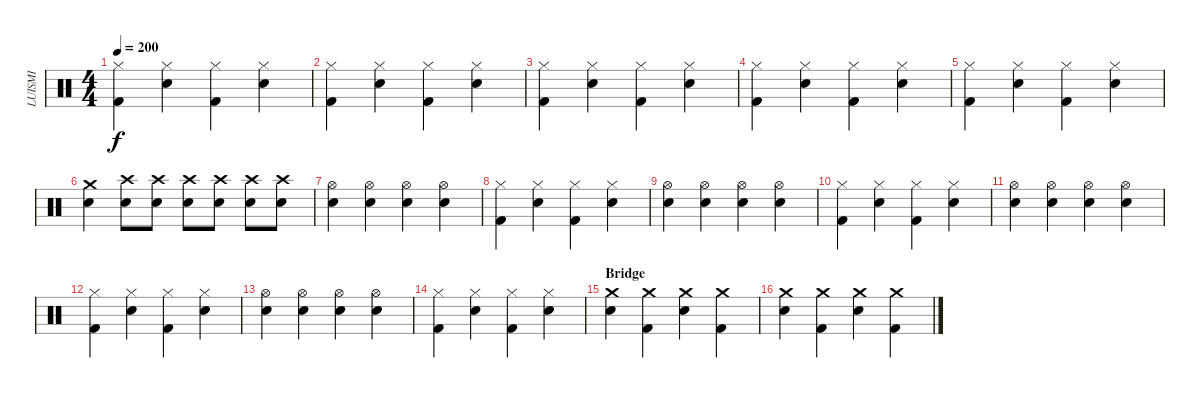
\track ("LUISMI" "LUISMI") {instrument percussion}
\staff {score}
\articulation defaults
\ts (4 4)
\tempo 200
\clef neutral
\ks c
("Hi-Hat (closed)" "Kick (hit) 2").4{dy f} ("Hi-Hat (closed)" "Snare (hit) 2").4 ("Hi-Hat (closed)" "Kick (hit) 2").4 ("Hi-Hat (closed)" "Snare (hit) 2").4 |
("Hi-Hat (closed)" "Kick (hit) 2").4 ("Hi-Hat (closed)" "Snare (hit) 2").4 ("Hi-Hat (closed)" "Kick (hit) 2").4 ("Hi-Hat (closed)" "Snare (hit) 2").4 |
("Hi-Hat (closed)" "Kick (hit) 2").4 ("Hi-Hat (closed)" "Snare (hit) 2").4 ("Hi-Hat (closed)" "Kick (hit) 2").4 ("Hi-Hat (closed)" "Snare (hit) 2").4 |
("Hi-Hat (closed)" "Kick (hit) 2").4 ("Hi-Hat (closed)" "Snare (hit) 2").4 ("Hi-Hat (closed)" "Kick (hit) 2").4 ("Hi-Hat (closed)" "Snare (hit) 2").4 |
("Hi-Hat (closed)" "Kick (hit) 2").4 ("Hi-Hat (closed)" "Snare (hit) 2").4 ("Hi-Hat (closed)" "Kick (hit) 2").4 ("Hi-Hat (closed)" "Snare (hit) 2").4 |
("Electric Snare (hit)" "Crash medium (hit)").4 ("Snare (hit) 2" "Crash high (hit)").8 ("Snare (hit) 2" "Crash high (hit)").8 ("Snare (hit) 2" "Crash high (hit)").8 ("Snare (hit) 2" "Crash high (hit)").8 ("Snare (hit) 2" "Crash high (hit)").8 ("Snare (hit) 2" "Crash high (hit)").8 |
("Snare (hit) 2" "Hi-Hat (open)").4 ("Snare (hit) 2" "Hi-Hat (open)").4 ("Snare (hit) 2" "Hi-Hat (open)").4 ("Snare (hit) 2" "Hi-Hat (open)").4 |
("Hi-Hat (closed)" "Kick (hit) 2").4 ("Hi-Hat (closed)" "Snare (hit) 2").4 ("Hi-Hat (closed)" "Kick (hit) 2").4 ("Hi-Hat (closed)" "Snare (hit) 2").4 |
("Snare (hit) 2" "Hi-Hat (open)").4 ("Snare (hit) 2" "Hi-Hat (open)").4 ("Snare (hit) 2" "Hi-Hat (open)").4 ("Snare (hit) 2" "Hi-Hat (open)").4 |
("Hi-Hat (closed)" "Kick (hit) 2").4 ("Hi-Hat (closed)" "Snare (hit) 2").4 ("Hi-Hat (closed)" "Kick (hit) 2").4 ("Hi-Hat (closed)" "Snare (hit) 2").4 |
("Snare (hit) 2" "Hi-Hat (open)").4 ("Snare (hit) 2" "Hi-Hat (open)").4 ("Snare (hit) 2" "Hi-Hat (open)").4 ("Snare (hit) 2" "Hi-Hat (open)").4 |
("Hi-Hat (closed)" "Kick (hit) 2").4 ("Hi-Hat (closed)" "Snare (hit) 2").4 ("Hi-Hat (closed)" "Kick (hit) 2").4 ("Hi-Hat (closed)" "Snare (hit) 2").4 |
("Snare (hit) 2" "Hi-Hat (open)").4 ("Snare (hit) 2" "Hi-Hat (open)").4 ("Snare (hit) 2" "Hi-Hat (open)").4 ("Snare (hit) 2" "Hi-Hat (open)").4 |
("Hi-Hat (closed)" "Kick (hit) 2").4 ("Hi-Hat (closed)" "Snare (hit) 2").4 ("Hi-Hat (closed)" "Kick (hit) 2").4 ("Hi-Hat (closed)" "Snare (hit) 2").4 |
\section ("" "Bridge")
("Snare (hit) 2" "Crash medium (hit)").4 ("Kick (hit) 2" "Crash medium (hit)").4 ("Snare (hit) 2" "Crash medium (hit)").4 ("Kick (hit) 2" "Crash medium (hit)").4 |
("Snare (hit) 2" "Crash medium (hit)").4 ("Kick (hit) 2" "Crash medium (hit)").4 ("Snare (hit) 2" "Crash medium (hit)").4 ("Kick (hit) 2" "Crash medium (hit)").4
